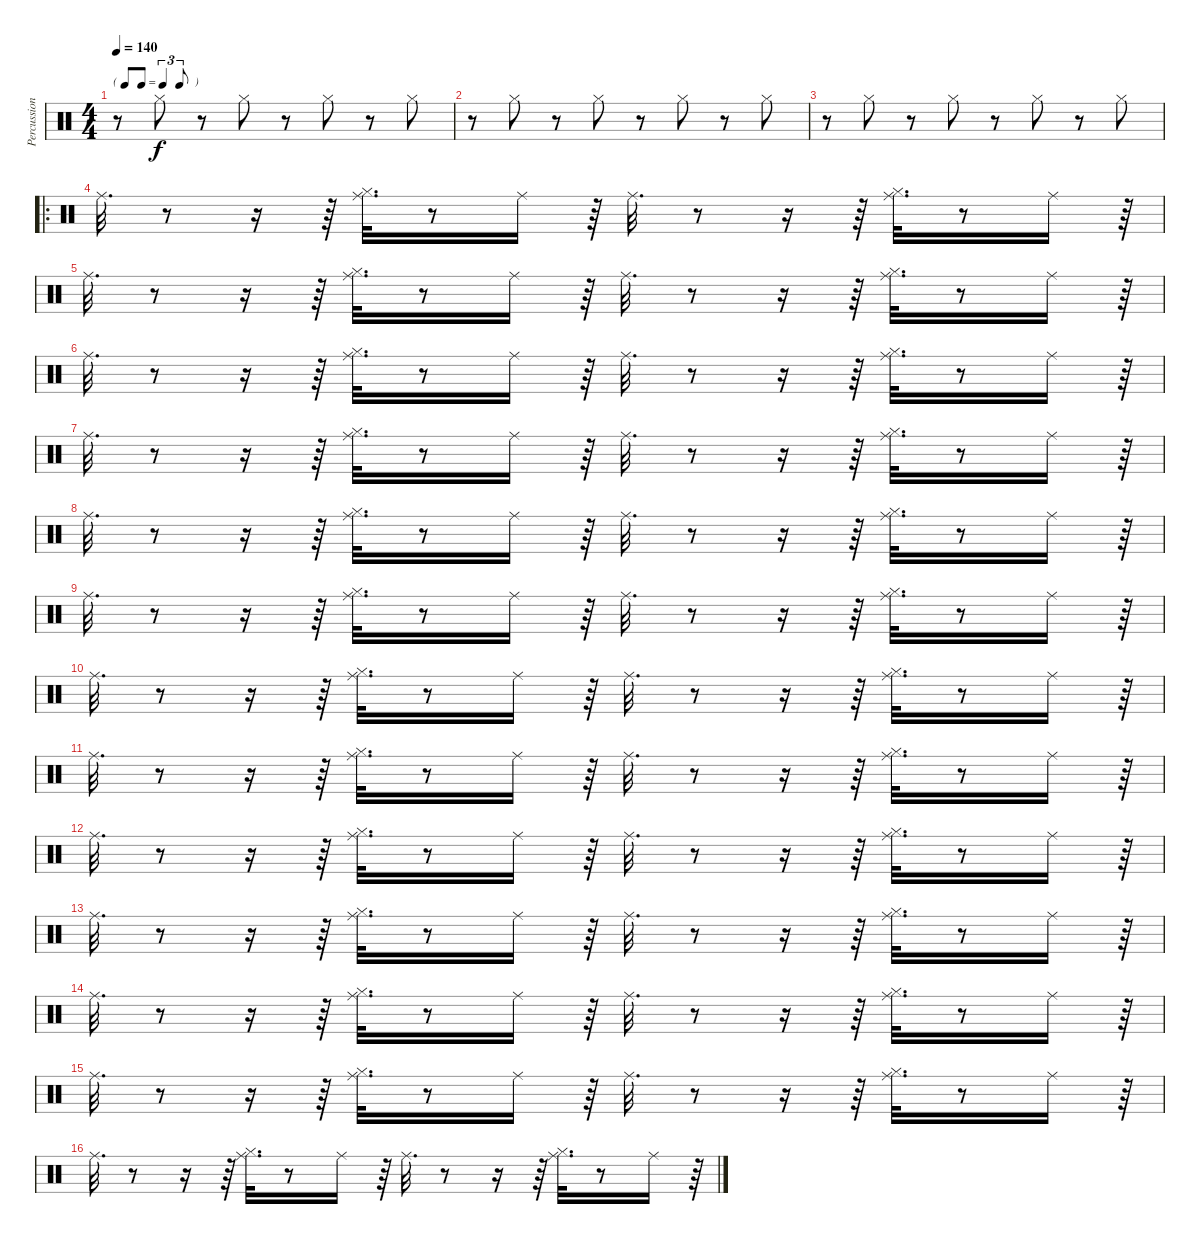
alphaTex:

\track ("Percussions" "Percussion") {instrument percussion}
\staff {score}
\articulation defaults
\ts (4 4)
\tf triplet8th
\tempo 140
\clef neutral
\ks c
r.8{dy f} "Hi-Hat (closed)".8 r.8 "Hi-Hat (closed)".8 r.8 "Hi-Hat (closed)".8 r.8 "Hi-Hat (closed)".8 |
r.8 "Hi-Hat (closed)".8 r.8 "Hi-Hat (closed)".8 r.8 "Hi-Hat (closed)".8 r.8 "Hi-Hat (closed)".8 |
r.8 "Hi-Hat (closed)".8 r.8 "Hi-Hat (closed)".8 r.8 "Hi-Hat (closed)".8 r.8 "Hi-Hat (closed)".8 |
\ro "Ride (middle)".32{d}
r.8 r.16 r.64 ("Hi-Hat (closed)" "Ride (middle)").32{d} r.8 "Ride (middle)".16 r.64 "Ride (middle)".32{d} r.8 r.16 r.64 ("Hi-Hat (closed)" "Ride (middle)").32{d} r.8 "Ride (middle)".16 r.64 |
"Ride (middle)".32{d} r.8 r.16 r.64 ("Hi-Hat (closed)" "Ride (middle)").32{d} r.8 "Ride (middle)".16 r.64 "Ride (middle)".32{d} r.8 r.16 r.64 ("Hi-Hat (closed)" "Ride (middle)").32{d} r.8 "Ride (middle)".16 r.64 |
"Ride (middle)".32{d} r.8 r.16 r.64 ("Hi-Hat (closed)" "Ride (middle)").32{d} r.8 "Ride (middle)".16 r.64 "Ride (middle)".32{d} r.8 r.16 r.64 ("Hi-Hat (closed)" "Ride (middle)").32{d} r.8 "Ride (middle)".16 r.64 |
"Ride (middle)".32{d} r.8 r.16 r.64 ("Hi-Hat (closed)" "Ride (middle)").32{d} r.8 "Ride (middle)".16 r.64 "Ride (middle)".32{d} r.8 r.16 r.64 ("Hi-Hat (closed)" "Ride (middle)").32{d} r.8 "Ride (middle)".16 r.64 |
"Ride (middle)".32{d} r.8 r.16 r.64 ("Hi-Hat (closed)" "Ride (middle)").32{d} r.8 "Ride (middle)".16 r.64 "Ride (middle)".32{d} r.8 r.16 r.64 ("Hi-Hat (closed)" "Ride (middle)").32{d} r.8 "Ride (middle)".16 r.64 |
"Ride (middle)".32{d} r.8 r.16 r.64 ("Hi-Hat (closed)" "Ride (middle)").32{d} r.8 "Ride (middle)".16 r.64 "Ride (middle)".32{d} r.8 r.16 r.64 ("Hi-Hat (closed)" "Ride (middle)").32{d} r.8 "Ride (middle)".16 r.64 |
"Ride (middle)".32{d} r.8 r.16 r.64 ("Hi-Hat (closed)" "Ride (middle)").32{d} r.8 "Ride (middle)".16 r.64 "Ride (middle)".32{d} r.8 r.16 r.64 ("Hi-Hat (closed)" "Ride (middle)").32{d} r.8 "Ride (middle)".16 r.64 |
"Ride (middle)".32{d} r.8 r.16 r.64 ("Hi-Hat (closed)" "Ride (middle)").32{d} r.8 "Ride (middle)".16 r.64 "Ride (middle)".32{d} r.8 r.16 r.64 ("Hi-Hat (closed)" "Ride (middle)").32{d} r.8 "Ride (middle)".16 r.64 |
"Ride (middle)".32{d} r.8 r.16 r.64 ("Hi-Hat (closed)" "Ride (middle)").32{d} r.8 "Ride (middle)".16 r.64 "Ride (middle)".32{d} r.8 r.16 r.64 ("Hi-Hat (closed)" "Ride (middle)").32{d} r.8 "Ride (middle)".16 r.64 |
"Ride (middle)".32{d} r.8 r.16 r.64 ("Hi-Hat (closed)" "Ride (middle)").32{d} r.8 "Ride (middle)".16 r.64 "Ride (middle)".32{d} r.8 r.16 r.64 ("Hi-Hat (closed)" "Ride (middle)").32{d} r.8 "Ride (middle)".16 r.64 |
"Ride (middle)".32{d} r.8 r.16 r.64 ("Hi-Hat (closed)" "Ride (middle)").32{d} r.8 "Ride (middle)".16 r.64 "Ride (middle)".32{d} r.8 r.16 r.64 ("Hi-Hat (closed)" "Ride (middle)").32{d} r.8 "Ride (middle)".16 r.64 |
"Ride (middle)".32{d} r.8 r.16 r.64 ("Hi-Hat (closed)" "Ride (middle)").32{d} r.8 "Ride (middle)".16 r.64 "Ride (middle)".32{d} r.8 r.16 r.64 ("Hi-Hat (closed)" "Ride (middle)").32{d} r.8 "Ride (middle)".16 r.64 |
"Ride (middle)".32{d} r.8 r.16 r.64 ("Hi-Hat (closed)" "Ride (middle)").32{d} r.8 "Ride (middle)".16 r.64 "Ride (middle)".32{d} r.8 r.16 r.64 ("Hi-Hat (closed)" "Ride (middle)").32{d} r.8 "Ride (middle)".16 r.64
